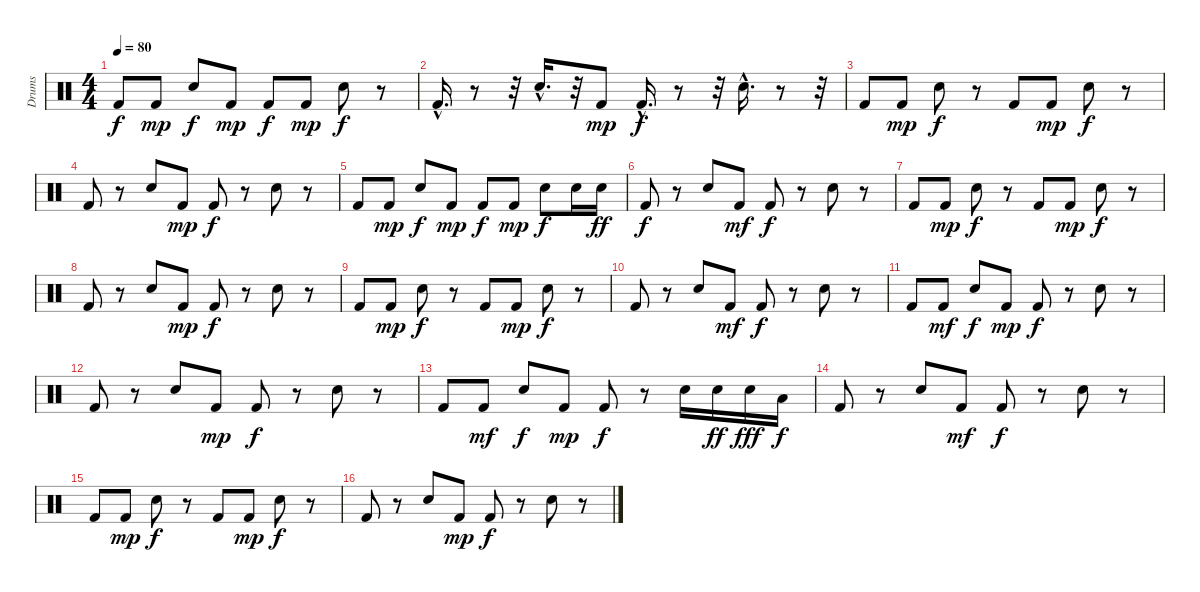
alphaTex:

\track ("Drums" "Drums") {instrument percussion}
\staff {score}
\articulation defaults
\ts (4 4)
\tempo 80
\clef neutral
\ks c "Kick (hit) 2".8{dy f} "Kick (hit) 2".8{dy mp} "Electric Snare (hit)".8{dy f} "Kick (hit) 2".8{dy mp} "Kick (hit) 2".8{dy f} "Kick (hit) 2".8{dy mp} "Electric Snare (hit)".8{dy f}
r.8 |
"Kick (hit) 2"{hac}.16{d} r.8 r.32 "Electric Snare (hit)"{hac}.16{d} r.32 "Kick (hit) 2".8{dy mp} "Kick (hit) 2"{hac}.16{d dy f} r.8 r.32 "Electric Snare (hit)"{hac}.16{d} r.8 r.32 |
"Kick (hit) 2".8 "Kick (hit) 2".8{dy mp} "Electric Snare (hit)".8{dy f} r.8 "Kick (hit) 2".8 "Kick (hit) 2".8{dy mp} "Electric Snare (hit)".8{dy f} r.8 |
"Kick (hit) 2".8 r.8 "Electric Snare (hit)".8 "Kick (hit) 2".8{dy mp} "Kick (hit) 2".8{dy f} r.8 "Electric Snare (hit)".8 r.8 |
"Kick (hit) 2".8 "Kick (hit) 2".8{dy mp} "Electric Snare (hit)".8{dy f} "Kick (hit) 2".8{dy mp} "Kick (hit) 2".8{dy f} "Kick (hit) 2".8{dy mp} "Electric Snare (hit)".8{dy f} "Electric Snare (hit)".16 "Electric Snare (hit)".16{dy ff} |
"Kick (hit) 2".8{dy f} r.8 "Electric Snare (hit)".8 "Kick (hit) 2".8{dy mf} "Kick (hit) 2".8{dy f} r.8 "Electric Snare (hit)".8 r.8 |
"Kick (hit) 2".8 "Kick (hit) 2".8{dy mp} "Electric Snare (hit)".8{dy f} r.8 "Kick (hit) 2".8 "Kick (hit) 2".8{dy mp} "Electric Snare (hit)".8{dy f} r.8 |
"Kick (hit) 2".8 r.8 "Electric Snare (hit)".8 "Kick (hit) 2".8{dy mp} "Kick (hit) 2".8{dy f} r.8 "Electric Snare (hit)".8 r.8 |
"Kick (hit) 2".8 "Kick (hit) 2".8{dy mp} "Electric Snare (hit)".8{dy f} r.8 "Kick (hit) 2".8 "Kick (hit) 2".8{dy mp} "Electric Snare (hit)".8{dy f} r.8 |
"Kick (hit) 2".8 r.8 "Electric Snare (hit)".8 "Kick (hit) 2".8{dy mf} "Kick (hit) 2".8{dy f} r.8 "Electric Snare (hit)".8 r.8 |
"Kick (hit) 2".8 "Kick (hit) 2".8{dy mf} "Electric Snare (hit)".8{dy f} "Kick (hit) 2".8{dy mp} "Kick (hit) 2".8{dy f} r.8 "Electric Snare (hit)".8 r.8 |
"Kick (hit) 2".8 r.8 "Electric Snare (hit)".8 "Kick (hit) 2".8{dy mp} "Kick (hit) 2".8{dy f} r.8 "Electric Snare (hit)".8 r.8 |
"Kick (hit) 2".8 "Kick (hit) 2".8{dy mf} "Electric Snare (hit)".8{dy f} "Kick (hit) 2".8{dy mp} "Kick (hit) 2".8{dy f} r.8 "Electric Snare (hit)".16 "Electric Snare (hit)".16{dy ff} "Electric Snare (hit)".16{dy fff} "Low Floor Tom (hit)".16{dy f} |
"Kick (hit) 2".8 r.8 "Electric Snare (hit)".8 "Kick (hit) 2".8{dy mf} "Kick (hit) 2".8{dy f} r.8 "Electric Snare (hit)".8 r.8 |
"Kick (hit) 2".8 "Kick (hit) 2".8{dy mp} "Electric Snare (hit)".8{dy f} r.8 "Kick (hit) 2".8 "Kick (hit) 2".8{dy mp} "Electric Snare (hit)".8{dy f} r.8 |
"Kick (hit) 2".8 r.8 "Electric Snare (hit)".8 "Kick (hit) 2".8{dy mp} "Kick (hit) 2".8{dy f} r.8 "Electric Snare (hit)".8 r.8
